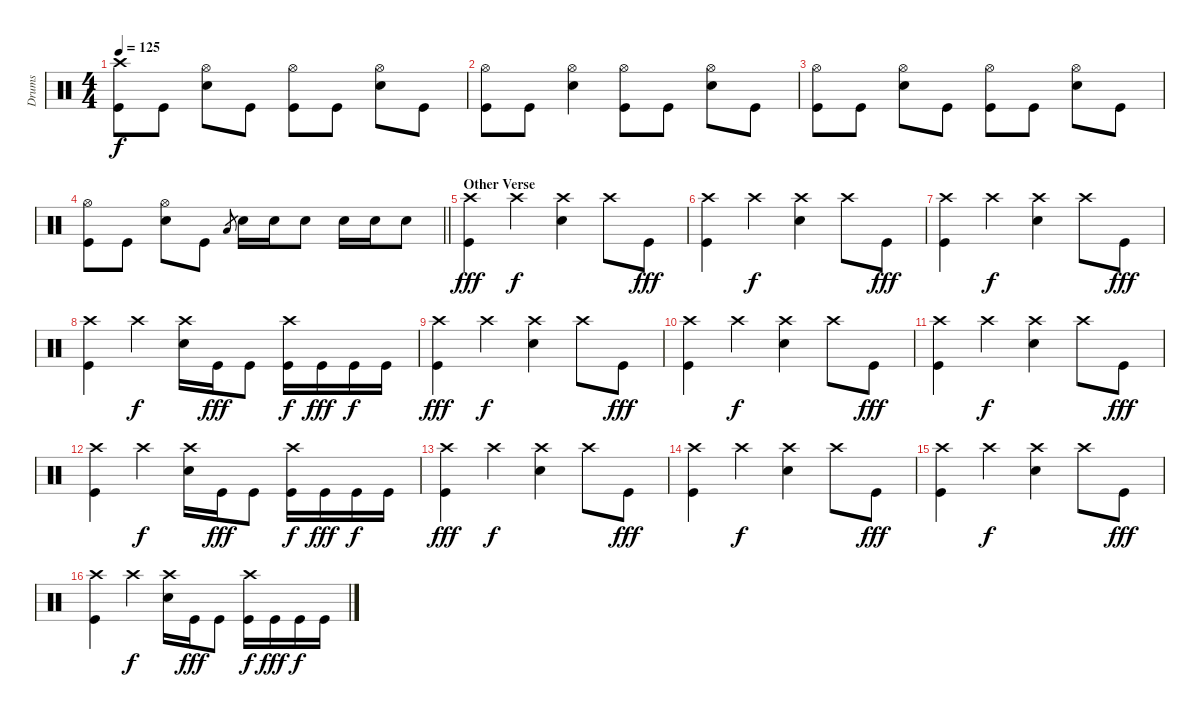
\track ("Drums" "Drums") {instrument percussion}
\staff {score}
\articulation defaults
\ts (4 4)
\tempo 125
\clef neutral
\ks c
("Crash high (hit)" "Kick (hit)").8{dy f} "Kick (hit)".8 ("Hi-Hat (open)" "Electric Snare (hit)").8 "Kick (hit)".8 ("Hi-Hat (open)" "Kick (hit)").8 "Kick (hit)".8 ("Hi-Hat (open)" "Electric Snare (hit)").8 "Kick (hit)".8 |
("Hi-Hat (open)" "Kick (hit)").8 "Kick (hit)".8 ("Hi-Hat (open)" "Electric Snare (hit)").4 ("Hi-Hat (open)" "Kick (hit)").8 "Kick (hit)".8 ("Hi-Hat (open)" "Electric Snare (hit)").8 "Kick (hit)".8 |
("Hi-Hat (open)" "Kick (hit)").8 "Kick (hit)".8 ("Hi-Hat (open)" "Electric Snare (hit)").8 "Kick (hit)".8 ("Hi-Hat (open)" "Kick (hit)").8 "Kick (hit)".8 ("Hi-Hat (open)" "Electric Snare (hit)").8 "Kick (hit)".8 |
\barLineRight lightlight
("Hi-Hat (open)" "Kick (hit)").8 "Kick (hit)".8 ("Hi-Hat (open)" "Electric Snare (hit)").8 "Kick (hit)".8 "Low Floor Tom (hit)".8{gr} "Electric Snare (hit)".16 "Electric Snare (hit)".16 "Electric Snare (hit)".8 "Electric Snare (hit)".16 "Electric Snare (hit)".16 "Electric Snare (hit)".8 |
\section ("" "Other Verse ")
("Crash high (hit)" "Kick (hit)").4{dy fff} "Crash high (hit)".4{dy f} ("Crash high (hit)" "Electric Snare (hit)").4 "Crash high (hit)".8 "Kick (hit)".8{dy fff} |
("Crash high (hit)" "Kick (hit)").4 "Crash high (hit)".4{dy f} ("Crash high (hit)" "Electric Snare (hit)").4 "Crash high (hit)".8 "Kick (hit)".8{dy fff} |
("Crash high (hit)" "Kick (hit)").4 "Crash high (hit)".4{dy f} ("Crash high (hit)" "Electric Snare (hit)").4 "Crash high (hit)".8 "Kick (hit)".8{dy fff} |
("Crash high (hit)" "Kick (hit)").4 "Crash high (hit)".4{dy f} ("Crash high (hit)" "Electric Snare (hit)").16 "Kick (hit)".16{dy fff} "Kick (hit)".8 ("Crash high (hit)" "Kick (hit)").16{dy f} "Kick (hit)".16{dy fff} "Kick (hit)".16{dy f} "Kick (hit)".16 |
("Crash high (hit)" "Kick (hit)").4{dy fff} "Crash high (hit)".4{dy f} ("Crash high (hit)" "Electric Snare (hit)").4 "Crash high (hit)".8 "Kick (hit)".8{dy fff} |
("Crash high (hit)" "Kick (hit)").4 "Crash high (hit)".4{dy f} ("Crash high (hit)" "Electric Snare (hit)").4 "Crash high (hit)".8 "Kick (hit)".8{dy fff} |
("Crash high (hit)" "Kick (hit)").4 "Crash high (hit)".4{dy f} ("Crash high (hit)" "Electric Snare (hit)").4 "Crash high (hit)".8 "Kick (hit)".8{dy fff} |
("Crash high (hit)" "Kick (hit)").4 "Crash high (hit)".4{dy f} ("Crash high (hit)" "Electric Snare (hit)").16 "Kick (hit)".16{dy fff} "Kick (hit)".8 ("Crash high (hit)" "Kick (hit)").16{dy f} "Kick (hit)".16{dy fff} "Kick (hit)".16{dy f} "Kick (hit)".16 |
("Crash high (hit)" "Kick (hit)").4{dy fff} "Crash high (hit)".4{dy f} ("Crash high (hit)" "Electric Snare (hit)").4 "Crash high (hit)".8 "Kick (hit)".8{dy fff} |
("Crash high (hit)" "Kick (hit)").4 "Crash high (hit)".4{dy f} ("Crash high (hit)" "Electric Snare (hit)").4 "Crash high (hit)".8 "Kick (hit)".8{dy fff} |
("Crash high (hit)" "Kick (hit)").4 "Crash high (hit)".4{dy f} ("Crash high (hit)" "Electric Snare (hit)").4 "Crash high (hit)".8 "Kick (hit)".8{dy fff} |
("Crash high (hit)" "Kick (hit)").4 "Crash high (hit)".4{dy f} ("Crash high (hit)" "Electric Snare (hit)").16 "Kick (hit)".16{dy fff} "Kick (hit)".8 ("Crash high (hit)" "Kick (hit)").16{dy f} "Kick (hit)".16{dy fff} "Kick (hit)".16{dy f} "Kick (hit)".16
